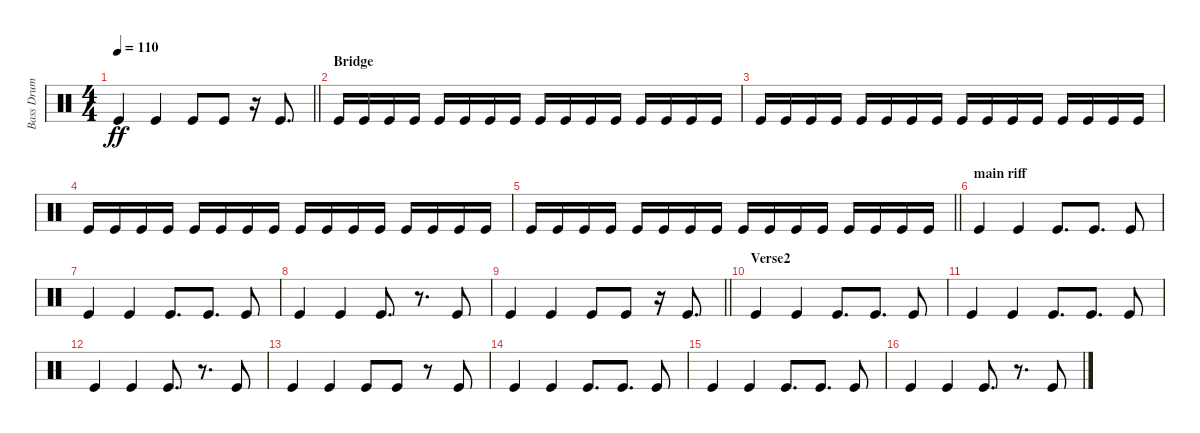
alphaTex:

\track ("Bass Drum" "Bass Drum") {instrument percussion}
\staff {score}
\articulation defaults
\ts (4 4)
\tempo 110
\clef neutral
\barLineRight lightlight
\ks c "Kick (hit)".4{dy ff} "Kick (hit)".4 "Kick (hit)".8 "Kick (hit)".8
r.16 "Kick (hit)".8{d} |
\section ("" "Bridge")
"Kick (hit)".16 "Kick (hit)".16 "Kick (hit)".16 "Kick (hit)".16 "Kick (hit)".16 "Kick (hit)".16 "Kick (hit)".16 "Kick (hit)".16 "Kick (hit)".16 "Kick (hit)".16 "Kick (hit)".16 "Kick (hit)".16 "Kick (hit)".16 "Kick (hit)".16 "Kick (hit)".16 "Kick (hit)".16 |
"Kick (hit)".16 "Kick (hit)".16 "Kick (hit)".16 "Kick (hit)".16 "Kick (hit)".16 "Kick (hit)".16 "Kick (hit)".16 "Kick (hit)".16 "Kick (hit)".16 "Kick (hit)".16 "Kick (hit)".16 "Kick (hit)".16 "Kick (hit)".16 "Kick (hit)".16 "Kick (hit)".16 "Kick (hit)".16 |
"Kick (hit)".16 "Kick (hit)".16 "Kick (hit)".16 "Kick (hit)".16 "Kick (hit)".16 "Kick (hit)".16 "Kick (hit)".16 "Kick (hit)".16 "Kick (hit)".16 "Kick (hit)".16 "Kick (hit)".16 "Kick (hit)".16 "Kick (hit)".16 "Kick (hit)".16 "Kick (hit)".16 "Kick (hit)".16 |
\barLineRight lightlight "Kick (hit)".16 "Kick (hit)".16 "Kick (hit)".16 "Kick (hit)".16 "Kick (hit)".16 "Kick (hit)".16 "Kick (hit)".16 "Kick (hit)".16 "Kick (hit)".16 "Kick (hit)".16 "Kick (hit)".16 "Kick (hit)".16 "Kick (hit)".16 "Kick (hit)".16 "Kick (hit)".16 "Kick (hit)".16
|
\section ("" "main riff")
"Kick (hit)".4 "Kick (hit)".4 "Kick (hit)".8{d} "Kick (hit)".8{d} "Kick (hit)".8 |
"Kick (hit)".4 "Kick (hit)".4 "Kick (hit)".8{d} "Kick (hit)".8{d} "Kick (hit)".8 |
"Kick (hit)".4 "Kick (hit)".4 "Kick (hit)".8{d} r.8{d} "Kick (hit)".8 |
\barLineRight lightlight "Kick (hit)".4 "Kick (hit)".4 "Kick (hit)".8 "Kick (hit)".8
r.16 "Kick (hit)".8{d} |
\section ("" "Verse2")
"Kick (hit)".4 "Kick (hit)".4 "Kick (hit)".8{d} "Kick (hit)".8{d} "Kick (hit)".8 |
"Kick (hit)".4 "Kick (hit)".4 "Kick (hit)".8{d} "Kick (hit)".8{d} "Kick (hit)".8 |
"Kick (hit)".4 "Kick (hit)".4 "Kick (hit)".8{d} r.8{d} "Kick (hit)".8 |
"Kick (hit)".4 "Kick (hit)".4 "Kick (hit)".8 "Kick (hit)".8 r.8 "Kick (hit)".8 |
"Kick (hit)".4 "Kick (hit)".4 "Kick (hit)".8{d} "Kick (hit)".8{d} "Kick (hit)".8 |
"Kick (hit)".4 "Kick (hit)".4 "Kick (hit)".8{d} "Kick (hit)".8{d} "Kick (hit)".8 |
"Kick (hit)".4 "Kick (hit)".4 "Kick (hit)".8{d} r.8{d} "Kick (hit)".8
